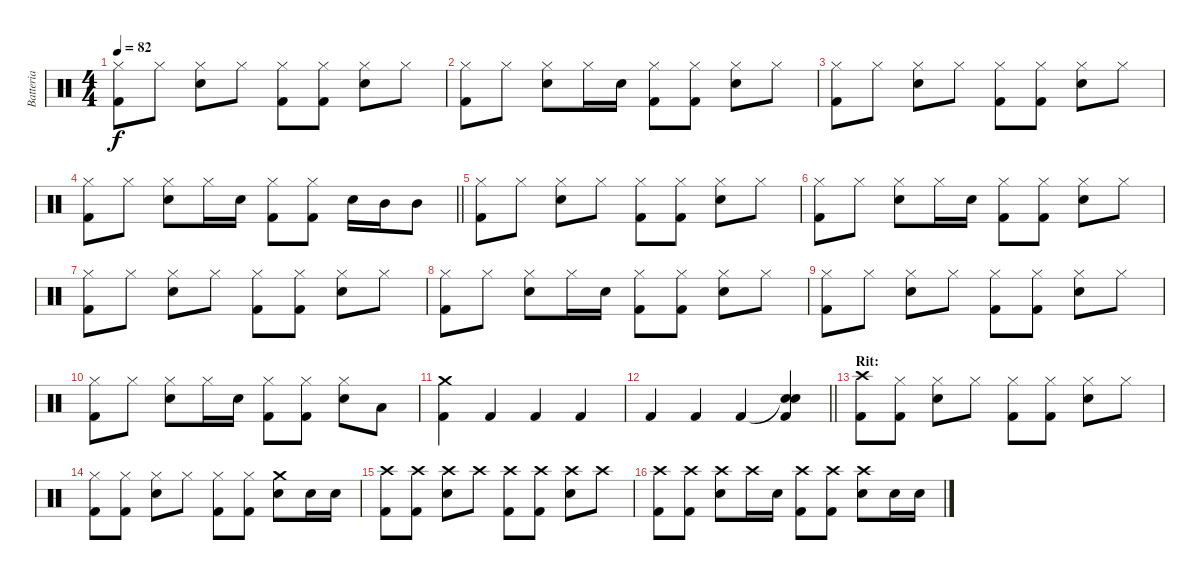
\track ("Batteria" "Batteria") {instrument percussion}
\staff {score}
\articulation defaults
\ts (4 4)
\tempo 82
\clef neutral
\ks c
("Hi-Hat (closed)" "Kick (hit) 2").8{dy f} "Hi-Hat (closed)".8 ("Hi-Hat (closed)" "Snare (hit) 2").8 "Hi-Hat (closed)".8 ("Hi-Hat (closed)" "Kick (hit) 2").8 ("Hi-Hat (closed)" "Kick (hit) 2").8 ("Hi-Hat (closed)" "Snare (hit) 2").8 "Hi-Hat (closed)".8 |
("Hi-Hat (closed)" "Kick (hit) 2").8 "Hi-Hat (closed)".8 ("Hi-Hat (closed)" "Snare (hit) 2").8 "Hi-Hat (closed)".16 "Snare (hit) 2".16 ("Hi-Hat (closed)" "Kick (hit) 2").8 ("Hi-Hat (closed)" "Kick (hit) 2").8 ("Hi-Hat (closed)" "Snare (hit) 2").8 "Hi-Hat (closed)".8 |
("Hi-Hat (closed)" "Kick (hit) 2").8 "Hi-Hat (closed)".8 ("Hi-Hat (closed)" "Snare (hit) 2").8 "Hi-Hat (closed)".8 ("Hi-Hat (closed)" "Kick (hit) 2").8 ("Hi-Hat (closed)" "Kick (hit) 2").8 ("Hi-Hat (closed)" "Snare (hit) 2").8 "Hi-Hat (closed)".8 |
\barLineRight lightlight
("Hi-Hat (closed)" "Kick (hit) 2").8 "Hi-Hat (closed)".8 ("Hi-Hat (closed)" "Snare (hit) 2").8 "Hi-Hat (closed)".16 "Snare (hit) 2".16 ("Hi-Hat (closed)" "Kick (hit) 2").8 ("Hi-Hat (closed)" "Kick (hit) 2").8 "Snare (hit) 2".16 "Mid Tom (hit)".16 "Mid Tom (hit)".8 |
("Hi-Hat (closed)" "Kick (hit) 2").8 "Hi-Hat (closed)".8 ("Hi-Hat (closed)" "Snare (hit) 2").8 "Hi-Hat (closed)".8 ("Hi-Hat (closed)" "Kick (hit) 2").8 ("Hi-Hat (closed)" "Kick (hit) 2").8 ("Hi-Hat (closed)" "Snare (hit) 2").8 "Hi-Hat (closed)".8 |
("Hi-Hat (closed)" "Kick (hit) 2").8 "Hi-Hat (closed)".8 ("Hi-Hat (closed)" "Snare (hit) 2").8 "Hi-Hat (closed)".16 "Snare (hit) 2".16 ("Hi-Hat (closed)" "Kick (hit) 2").8 ("Hi-Hat (closed)" "Kick (hit) 2").8 ("Hi-Hat (closed)" "Snare (hit) 2").8 "Hi-Hat (closed)".8 |
("Hi-Hat (closed)" "Kick (hit) 2").8 "Hi-Hat (closed)".8 ("Hi-Hat (closed)" "Snare (hit) 2").8 "Hi-Hat (closed)".8 ("Hi-Hat (closed)" "Kick (hit) 2").8 ("Hi-Hat (closed)" "Kick (hit) 2").8 ("Hi-Hat (closed)" "Snare (hit) 2").8 "Hi-Hat (closed)".8 |
("Hi-Hat (closed)" "Kick (hit) 2").8 "Hi-Hat (closed)".8 ("Hi-Hat (closed)" "Snare (hit) 2").8 "Hi-Hat (closed)".16 "Snare (hit) 2".16 ("Hi-Hat (closed)" "Kick (hit) 2").8 ("Hi-Hat (closed)" "Kick (hit) 2").8 ("Hi-Hat (closed)" "Snare (hit) 2").8 "Hi-Hat (closed)".8 |
("Hi-Hat (closed)" "Kick (hit) 2").8 "Hi-Hat (closed)".8 ("Hi-Hat (closed)" "Snare (hit) 2").8 "Hi-Hat (closed)".8 ("Hi-Hat (closed)" "Kick (hit) 2").8 ("Hi-Hat (closed)" "Kick (hit) 2").8 ("Hi-Hat (closed)" "Snare (hit) 2").8 "Hi-Hat (closed)".8 |
("Hi-Hat (closed)" "Kick (hit) 2").8 "Hi-Hat (closed)".8 ("Hi-Hat (closed)" "Snare (hit) 2").8 "Hi-Hat (closed)".16 "Snare (hit) 2".16 ("Hi-Hat (closed)" "Kick (hit) 2").8 ("Hi-Hat (closed)" "Kick (hit) 2").8 ("Hi-Hat (closed)" "Snare (hit) 2").8 "Low Floor Tom (hit)".8 |
("Crash medium (hit)" "Kick (hit) 2").4 "Kick (hit) 2".4 "Kick (hit) 2".4 "Kick (hit) 2".4 |
\barLineRight lightlight "Kick (hit) 2".4 "Kick (hit) 2".4 "Kick (hit) 2".4
("Snare (hit)"{t} "Snare (hit) 2" "Kick (hit) 2").4 |
\section ("" "Rit:")
("Crash high (hit)" "Kick (hit) 2").8 ("Hi-Hat (closed)" "Kick (hit) 2").8 ("Hi-Hat (closed)" "Snare (hit) 2").8 "Hi-Hat (closed)".8 ("Hi-Hat (closed)" "Kick (hit) 2").8 ("Hi-Hat (closed)" "Kick (hit) 2").8 ("Hi-Hat (closed)" "Snare (hit) 2").8 "Hi-Hat (closed)".8 |
("Hi-Hat (closed)" "Kick (hit) 2").8 ("Hi-Hat (closed)" "Kick (hit) 2").8 ("Hi-Hat (closed)" "Snare (hit) 2").8 "Hi-Hat (closed)".8 ("Hi-Hat (closed)" "Kick (hit) 2").8 ("Hi-Hat (closed)" "Kick (hit) 2").8 ("Crash medium (hit)" "Snare (hit) 2").8 "Snare (hit) 2".16 "Snare (hit) 2".16 |
("Crash high (hit)" "Kick (hit) 2").8 ("Crash high (hit)" "Kick (hit) 2").8 ("Crash high (hit)" "Snare (hit) 2").8 "Crash high (hit)".8 ("Crash high (hit)" "Kick (hit) 2").8 ("Crash high (hit)" "Kick (hit) 2").8 ("Crash high (hit)" "Snare (hit) 2").8 "Crash high (hit)".8 |
("Crash high (hit)" "Kick (hit) 2").8 ("Crash high (hit)" "Kick (hit) 2").8 ("Crash high (hit)" "Snare (hit) 2").8 "Crash high (hit)".16 "Snare (hit) 2".16 ("Crash high (hit)" "Kick (hit) 2").8 ("Crash high (hit)" "Kick (hit) 2").8 ("Crash high (hit)" "Snare (hit) 2").8 "Snare (hit) 2".16 "Snare (hit) 2".16
